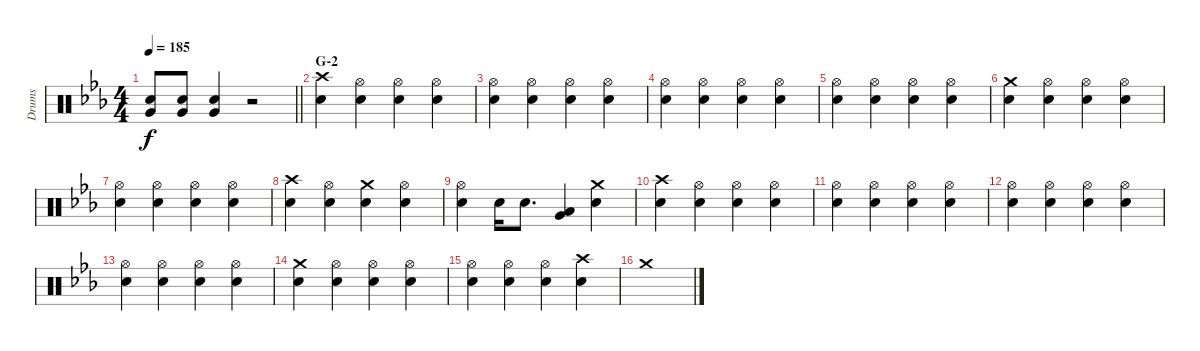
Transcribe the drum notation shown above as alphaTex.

\track ("Drums" "Drums") {instrument percussion}
\staff {score}
\articulation defaults
\ts (4 4)
\tempo 185
\clef neutral
\barLineRight lightlight
\ks eb
("Snare (hit) 2" "Very Low Tom (hit)").8{dy f} ("Snare (hit) 2" "Very Low Tom (hit)").8 ("Snare (hit) 2" "Very Low Tom (hit)").4 r.2 |
\section ("" "G-2")
("Crash high (hit)" "Snare (hit) 2").4 ("Hi-Hat (open)" "Snare (hit) 2").4 ("Hi-Hat (open)" "Snare (hit) 2").4 ("Hi-Hat (open)" "Snare (hit) 2").4 |
("Hi-Hat (open)" "Snare (hit) 2").4 ("Hi-Hat (open)" "Snare (hit) 2").4 ("Hi-Hat (open)" "Snare (hit) 2").4 ("Hi-Hat (open)" "Snare (hit) 2").4 |
("Hi-Hat (open)" "Snare (hit) 2").4 ("Hi-Hat (open)" "Snare (hit) 2").4 ("Hi-Hat (open)" "Snare (hit) 2").4 ("Hi-Hat (open)" "Snare (hit) 2").4 |
("Hi-Hat (open)" "Snare (hit) 2").4 ("Hi-Hat (open)" "Snare (hit) 2").4 ("Hi-Hat (open)" "Snare (hit) 2").4 ("Hi-Hat (open)" "Snare (hit) 2").4 |
("Crash medium (hit)" "Snare (hit) 2").4 ("Hi-Hat (open)" "Snare (hit) 2").4 ("Hi-Hat (open)" "Snare (hit) 2").4 ("Hi-Hat (open)" "Snare (hit) 2").4 |
("Hi-Hat (open)" "Snare (hit) 2").4 ("Hi-Hat (open)" "Snare (hit) 2").4 ("Hi-Hat (open)" "Snare (hit) 2").4 ("Hi-Hat (open)" "Snare (hit) 2").4 |
("Crash high (hit)" "Snare (hit) 2").4 ("Hi-Hat (open)" "Snare (hit) 2").4 ("Crash medium (hit)" "Snare (hit) 2").4 ("Hi-Hat (open)" "Snare (hit) 2").4 |
("Hi-Hat (open)" "Snare (hit) 2").4 "Snare (hit) 2".16 "Snare (hit) 2".8{d} ("Low Tom (hit)" "Very Low Tom (hit)").4 ("Crash medium (hit)" "Snare (hit) 2").4 |
("Crash high (hit)" "Snare (hit) 2").4 ("Hi-Hat (open)" "Snare (hit) 2").4 ("Hi-Hat (open)" "Snare (hit) 2").4 ("Hi-Hat (open)" "Snare (hit) 2").4 |
("Hi-Hat (open)" "Snare (hit) 2").4 ("Hi-Hat (open)" "Snare (hit) 2").4 ("Hi-Hat (open)" "Snare (hit) 2").4 ("Hi-Hat (open)" "Snare (hit) 2").4 |
("Hi-Hat (open)" "Snare (hit) 2").4 ("Hi-Hat (open)" "Snare (hit) 2").4 ("Hi-Hat (open)" "Snare (hit) 2").4 ("Hi-Hat (open)" "Snare (hit) 2").4 |
("Hi-Hat (open)" "Snare (hit) 2").4 ("Hi-Hat (open)" "Snare (hit) 2").4 ("Hi-Hat (open)" "Snare (hit) 2").4 ("Hi-Hat (open)" "Snare (hit) 2").4 |
("Crash medium (hit)" "Snare (hit) 2").4 ("Hi-Hat (open)" "Snare (hit) 2").4 ("Hi-Hat (open)" "Snare (hit) 2").4 ("Hi-Hat (open)" "Snare (hit) 2").4 |
("Hi-Hat (open)" "Snare (hit) 2").4 ("Hi-Hat (open)" "Snare (hit) 2").4 ("Hi-Hat (open)" "Snare (hit) 2").4 ("Crash high (hit)" "Snare (hit) 2").4 |
"Crash medium (hit)".1
